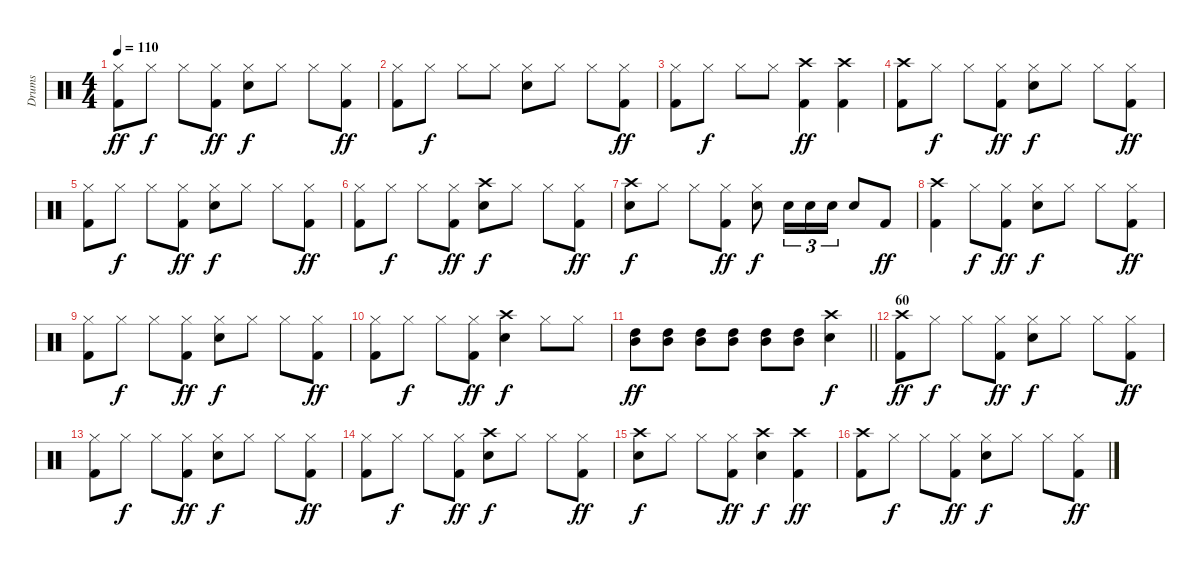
\track ("Drums" "Drums") {instrument percussion}
\staff {score}
\articulation defaults
\ts (4 4)
\tempo 110
\clef neutral
\ks c
("Hi-Hat (closed)" "Kick (hit) 2").8{dy ff} "Hi-Hat (closed)".8{dy f} "Hi-Hat (closed)".8 ("Hi-Hat (closed)" "Kick (hit) 2").8{dy ff} ("Hi-Hat (closed)" "Snare (hit) 2").8{dy f} "Hi-Hat (closed)".8 "Hi-Hat (closed)".8 ("Hi-Hat (closed)" "Kick (hit) 2").8{dy ff} |
("Hi-Hat (closed)" "Kick (hit) 2").8 "Hi-Hat (closed)".8{dy f} "Hi-Hat (closed)".8 "Hi-Hat (closed)".8 ("Hi-Hat (closed)" "Snare (hit) 2").8 "Hi-Hat (closed)".8 "Hi-Hat (closed)".8 ("Hi-Hat (closed)" "Kick (hit) 2").8{dy ff} |
("Hi-Hat (closed)" "Kick (hit) 2").8 "Hi-Hat (closed)".8{dy f} "Hi-Hat (closed)".8 "Hi-Hat (closed)".8 ("Crash high (hit)" "Kick (hit) 2").4{dy ff} ("Crash high (hit)" "Kick (hit) 2").4 |
("Crash high (hit)" "Kick (hit) 2").8 "Hi-Hat (closed)".8{dy f} "Hi-Hat (closed)".8 ("Hi-Hat (closed)" "Kick (hit) 2").8{dy ff} ("Hi-Hat (closed)" "Snare (hit) 2").8{dy f} "Hi-Hat (closed)".8 "Hi-Hat (closed)".8 ("Hi-Hat (closed)" "Kick (hit) 2").8{dy ff} |
("Hi-Hat (closed)" "Kick (hit) 2").8 "Hi-Hat (closed)".8{dy f} "Hi-Hat (closed)".8 ("Hi-Hat (closed)" "Kick (hit) 2").8{dy ff} ("Hi-Hat (closed)" "Snare (hit) 2").8{dy f} "Hi-Hat (closed)".8 "Hi-Hat (closed)".8 ("Hi-Hat (closed)" "Kick (hit) 2").8{dy ff} |
("Hi-Hat (closed)" "Kick (hit) 2").8 "Hi-Hat (closed)".8{dy f} "Hi-Hat (closed)".8 ("Hi-Hat (closed)" "Kick (hit) 2").8{dy ff} ("Crash high (hit)" "Snare (hit) 2").8{dy f} "Hi-Hat (closed)".8 "Hi-Hat (closed)".8 ("Hi-Hat (closed)" "Kick (hit) 2").8{dy ff} |
("Crash high (hit)" "Snare (hit) 2").8{dy f} "Hi-Hat (closed)".8 "Hi-Hat (closed)".8 ("Hi-Hat (closed)" "Kick (hit) 2").8{dy ff} ("Hi-Hat (closed)" "Snare (hit) 2").8{dy f} "Snare (hit) 2".16{tu (3 2)} "Snare (hit) 2".16{tu (3 2)} "Snare (hit) 2".16{tu (3 2)} "Snare (hit) 2".8 "Kick (hit) 2".8{dy ff} |
("Crash high (hit)" "Kick (hit) 2").4 "Hi-Hat (closed)".8{dy f} ("Hi-Hat (closed)" "Kick (hit) 2").8{dy ff} ("Hi-Hat (closed)" "Snare (hit) 2").8{dy f} "Hi-Hat (closed)".8 "Hi-Hat (closed)".8 ("Hi-Hat (closed)" "Kick (hit) 2").8{dy ff} |
("Hi-Hat (closed)" "Kick (hit) 2").8 "Hi-Hat (closed)".8{dy f} "Hi-Hat (closed)".8 ("Hi-Hat (closed)" "Kick (hit) 2").8{dy ff} ("Hi-Hat (closed)" "Snare (hit) 2").8{dy f} "Hi-Hat (closed)".8 "Hi-Hat (closed)".8 ("Hi-Hat (closed)" "Kick (hit) 2").8{dy ff} |
("Hi-Hat (closed)" "Kick (hit) 2").8 "Hi-Hat (closed)".8{dy f} "Hi-Hat (closed)".8 ("Hi-Hat (closed)" "Kick (hit) 2").8{dy ff} ("Crash high (hit)" "Snare (hit) 2").4{dy f} "Hi-Hat (closed)".8 "Hi-Hat (closed)".8 |
\barLineRight lightlight
("Mid Tom (hit)" "High Tom (hit)").8{dy ff} ("Mid Tom (hit)" "High Tom (hit)").8 ("Mid Tom (hit)" "High Tom (hit)").8 ("Mid Tom (hit)" "High Tom (hit)").8 ("Mid Tom (hit)" "High Tom (hit)").8 ("Mid Tom (hit)" "High Tom (hit)").8 ("Crash high (hit)" "Snare (hit) 2").4{dy f} |
\section ("" "60")
("Crash high (hit)" "Kick (hit) 2").8{dy ff} "Hi-Hat (closed)".8{dy f} "Hi-Hat (closed)".8 ("Hi-Hat (closed)" "Kick (hit) 2").8{dy ff} ("Hi-Hat (closed)" "Snare (hit) 2").8{dy f} "Hi-Hat (closed)".8 "Hi-Hat (closed)".8 ("Hi-Hat (closed)" "Kick (hit) 2").8{dy ff} |
("Hi-Hat (closed)" "Kick (hit) 2").8 "Hi-Hat (closed)".8{dy f} "Hi-Hat (closed)".8 ("Hi-Hat (closed)" "Kick (hit) 2").8{dy ff} ("Hi-Hat (closed)" "Snare (hit) 2").8{dy f} "Hi-Hat (closed)".8 "Hi-Hat (closed)".8 ("Hi-Hat (closed)" "Kick (hit) 2").8{dy ff} |
("Hi-Hat (closed)" "Kick (hit) 2").8 "Hi-Hat (closed)".8{dy f} "Hi-Hat (closed)".8 ("Hi-Hat (closed)" "Kick (hit) 2").8{dy ff} ("Crash high (hit)" "Snare (hit) 2").8{dy f} "Hi-Hat (closed)".8 "Hi-Hat (closed)".8 ("Hi-Hat (closed)" "Kick (hit) 2").8{dy ff} |
("Crash high (hit)" "Snare (hit) 2").8{dy f} "Hi-Hat (closed)".8 "Hi-Hat (closed)".8 ("Hi-Hat (closed)" "Kick (hit) 2").8{dy ff} ("Crash high (hit)" "Snare (hit) 2").4{dy f} ("Crash high (hit)" "Kick (hit) 2").4{dy ff} |
("Crash high (hit)" "Kick (hit) 2").8 "Hi-Hat (closed)".8{dy f} "Hi-Hat (closed)".8 ("Hi-Hat (closed)" "Kick (hit) 2").8{dy ff} ("Hi-Hat (closed)" "Snare (hit) 2").8{dy f} "Hi-Hat (closed)".8 "Hi-Hat (closed)".8 ("Hi-Hat (closed)" "Kick (hit) 2").8{dy ff}
